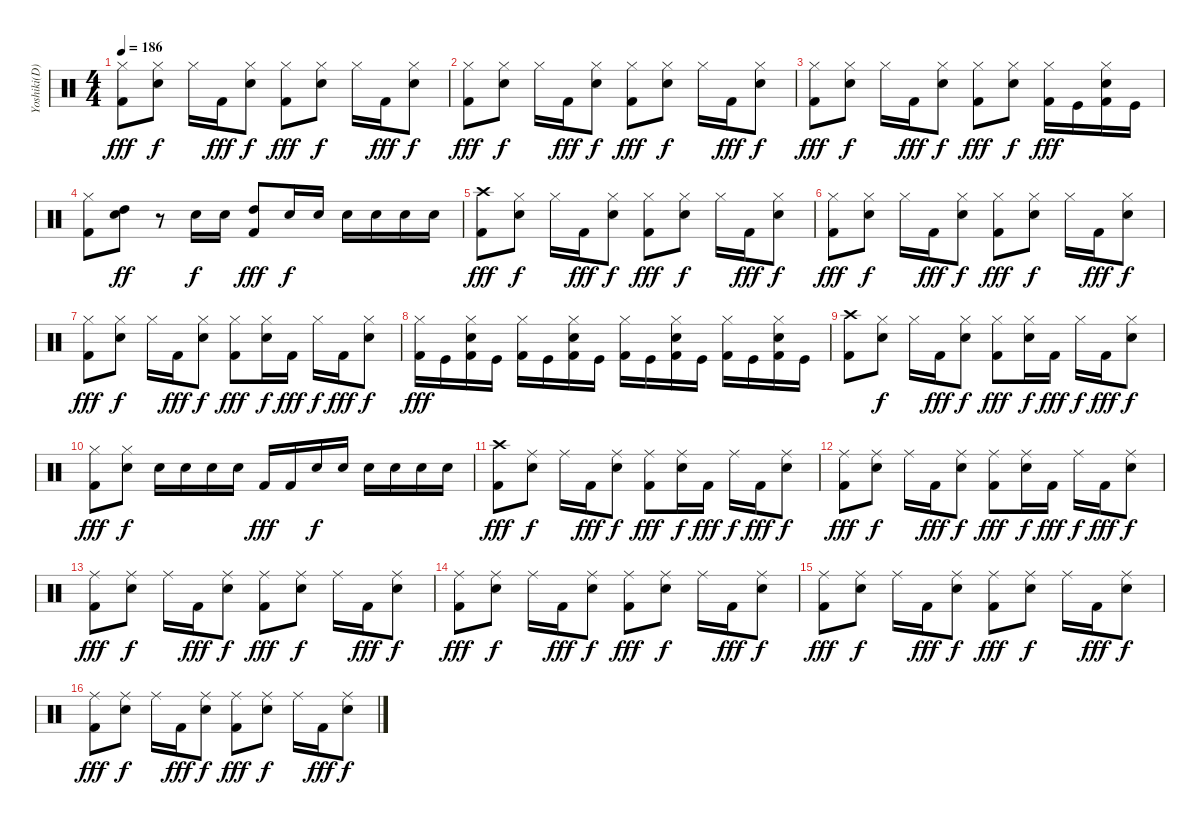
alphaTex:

\track ("Yoshiki(D)" "Yoshiki(D)") {instrument percussion}
\staff {score}
\articulation defaults
\ts (4 4)
\tempo 186
\clef neutral
\ks c
("Hi-Hat (closed)" "Kick (hit) 2").8{dy fff} ("Hi-Hat (closed)" "Electric Snare (hit)").8{dy f} "Hi-Hat (closed)".16 "Kick (hit) 2".16{dy fff} ("Hi-Hat (closed)" "Electric Snare (hit)").8{dy f} ("Hi-Hat (closed)" "Kick (hit) 2").8{dy fff} ("Hi-Hat (closed)" "Electric Snare (hit)").8{dy f} "Hi-Hat (closed)".16 "Kick (hit) 2".16{dy fff} ("Hi-Hat (closed)" "Electric Snare (hit)").8{dy f} |
("Hi-Hat (closed)" "Kick (hit) 2").8{dy fff} ("Hi-Hat (closed)" "Electric Snare (hit)").8{dy f} "Hi-Hat (closed)".16 "Kick (hit) 2".16{dy fff} ("Hi-Hat (closed)" "Electric Snare (hit)").8{dy f} ("Hi-Hat (closed)" "Kick (hit) 2").8{dy fff} ("Hi-Hat (closed)" "Electric Snare (hit)").8{dy f} "Hi-Hat (closed)".16 "Kick (hit) 2".16{dy fff} ("Hi-Hat (closed)" "Electric Snare (hit)").8{dy f} |
("Hi-Hat (closed)" "Kick (hit) 2").8{dy fff} ("Hi-Hat (closed)" "Electric Snare (hit)").8{dy f} "Hi-Hat (closed)".16 "Kick (hit) 2".16{dy fff} ("Hi-Hat (closed)" "Electric Snare (hit)").8{dy f} ("Hi-Hat (closed)" "Kick (hit) 2").8{dy fff} ("Hi-Hat (closed)" "Electric Snare (hit)").8{dy f} ("Hi-Hat (closed)" "Kick (hit) 2").16{dy fff} "Kick (hit)".16 ("Hi-Hat (closed)" "Electric Snare (hit)" "Kick (hit) 2").16 "Kick (hit)".16 |
("Hi-Hat (closed)" "Kick (hit) 2").8 ("High Tom (hit)" "Electric Snare (hit)").8{dy ff} r.8 "Electric Snare (hit)".16{dy f} "Electric Snare (hit)".16 ("High Tom (hit)" "Kick (hit) 2").8{dy fff} "Electric Snare (hit)".16{dy f} "Electric Snare (hit)".16 "Electric Snare (hit)".16 "Electric Snare (hit)".16 "Electric Snare (hit)".16 "Electric Snare (hit)".16 |
("Crash high (hit)" "Kick (hit) 2").8{dy fff} ("Hi-Hat (closed)" "Electric Snare (hit)").8{dy f} "Hi-Hat (closed)".16 "Kick (hit) 2".16{dy fff} ("Hi-Hat (closed)" "Electric Snare (hit)").8{dy f} ("Hi-Hat (closed)" "Kick (hit) 2").8{dy fff} ("Hi-Hat (closed)" "Electric Snare (hit)").8{dy f} "Hi-Hat (closed)".16 "Kick (hit) 2".16{dy fff} ("Hi-Hat (closed)" "Electric Snare (hit)").8{dy f} |
("Hi-Hat (closed)" "Kick (hit) 2").8{dy fff} ("Hi-Hat (closed)" "Electric Snare (hit)").8{dy f} "Hi-Hat (closed)".16 "Kick (hit) 2".16{dy fff} ("Hi-Hat (closed)" "Electric Snare (hit)").8{dy f} ("Hi-Hat (closed)" "Kick (hit) 2").8{dy fff} ("Hi-Hat (closed)" "Electric Snare (hit)").8{dy f} "Hi-Hat (closed)".16 "Kick (hit) 2".16{dy fff} ("Hi-Hat (closed)" "Electric Snare (hit)").8{dy f} |
("Hi-Hat (closed)" "Kick (hit) 2").8{dy fff} ("Hi-Hat (closed)" "Electric Snare (hit)").8{dy f} "Hi-Hat (closed)".16 "Kick (hit) 2".16{dy fff} ("Hi-Hat (closed)" "Electric Snare (hit)").8{dy f} ("Hi-Hat (closed)" "Kick (hit) 2").8{dy fff} ("Hi-Hat (closed)" "Electric Snare (hit)").16{dy f} "Kick (hit) 2".16{dy fff} "Hi-Hat (closed)".16{dy f} "Kick (hit) 2".16{dy fff} ("Hi-Hat (closed)" "Electric Snare (hit)").8{dy f} |
("Hi-Hat (closed)" "Kick (hit) 2").16{dy fff} "Kick (hit)".16 ("Hi-Hat (closed)" "Electric Snare (hit)" "Kick (hit) 2").16 "Kick (hit)".16 ("Hi-Hat (closed)" "Kick (hit) 2").16 "Kick (hit)".16 ("Hi-Hat (closed)" "Electric Snare (hit)" "Kick (hit) 2").16 "Kick (hit)".16 ("Hi-Hat (closed)" "Kick (hit) 2").16 "Kick (hit)".16 ("Hi-Hat (closed)" "Electric Snare (hit)" "Kick (hit) 2").16 "Kick (hit)".16 ("Hi-Hat (closed)" "Kick (hit) 2").16 "Kick (hit)".16 ("Hi-Hat (closed)" "Electric Snare (hit)" "Kick (hit) 2").16 "Kick (hit)".16 |
("Crash high (hit)" "Kick (hit) 2").8 ("Hi-Hat (closed)" "Electric Snare (hit)").8{dy f} "Hi-Hat (closed)".16 "Kick (hit) 2".16{dy fff} ("Hi-Hat (closed)" "Electric Snare (hit)").8{dy f} ("Hi-Hat (closed)" "Kick (hit) 2").8{dy fff} ("Hi-Hat (closed)" "Electric Snare (hit)").16{dy f} "Kick (hit) 2".16{dy fff} "Hi-Hat (closed)".16{dy f} "Kick (hit) 2".16{dy fff} ("Hi-Hat (closed)" "Electric Snare (hit)").8{dy f} |
("Hi-Hat (closed)" "Kick (hit) 2").8{dy fff} ("Hi-Hat (closed)" "Electric Snare (hit)").8{dy f} "Electric Snare (hit)".16 "Electric Snare (hit)".16 "Electric Snare (hit)".16 "Electric Snare (hit)".16 "Kick (hit) 2".16{dy fff} "Kick (hit) 2".16 "Electric Snare (hit)".16{dy f} "Electric Snare (hit)".16 "Electric Snare (hit)".16 "Electric Snare (hit)".16 "Electric Snare (hit)".16 "Electric Snare (hit)".16 |
("Crash high (hit)" "Kick (hit) 2").8{dy fff} ("Ride (middle)" "Electric Snare (hit)").8{dy f} "Ride (middle)".16 "Kick (hit) 2".16{dy fff} ("Ride (middle)" "Electric Snare (hit)").8{dy f} ("Ride (middle)" "Kick (hit) 2").8{dy fff} ("Ride (middle)" "Electric Snare (hit)").16{dy f} "Kick (hit) 2".16{dy fff} "Ride (middle)".16{dy f} "Kick (hit) 2".16{dy fff} ("Ride (middle)" "Electric Snare (hit)").8{dy f} |
("Ride (middle)" "Kick (hit) 2").8{dy fff} ("Ride (middle)" "Electric Snare (hit)").8{dy f} "Ride (middle)".16 "Kick (hit) 2".16{dy fff} ("Ride (middle)" "Electric Snare (hit)").8{dy f} ("Ride (middle)" "Kick (hit) 2").8{dy fff} ("Ride (middle)" "Electric Snare (hit)").16{dy f} "Kick (hit) 2".16{dy fff} "Ride (middle)".16{dy f} "Kick (hit) 2".16{dy fff} ("Ride (middle)" "Electric Snare (hit)").8{dy f} |
("Ride (middle)" "Kick (hit) 2").8{dy fff} ("Ride (middle)" "Electric Snare (hit)").8{dy f} "Ride (middle)".16 "Kick (hit) 2".16{dy fff} ("Ride (middle)" "Electric Snare (hit)").8{dy f} ("Ride (middle)" "Kick (hit) 2").8{dy fff} ("Ride (middle)" "Electric Snare (hit)").8{dy f} "Ride (middle)".16 "Kick (hit) 2".16{dy fff} ("Ride (middle)" "Electric Snare (hit)").8{dy f} |
("Ride (middle)" "Kick (hit) 2").8{dy fff} ("Ride (middle)" "Electric Snare (hit)").8{dy f} "Ride (middle)".16 "Kick (hit) 2".16{dy fff} ("Ride (middle)" "Electric Snare (hit)").8{dy f} ("Ride (middle)" "Kick (hit) 2").8{dy fff} ("Ride (middle)" "Electric Snare (hit)").8{dy f} "Ride (middle)".16 "Kick (hit) 2".16{dy fff} ("Ride (middle)" "Electric Snare (hit)").8{dy f} |
("Ride (middle)" "Kick (hit) 2").8{dy fff} ("Ride (middle)" "Electric Snare (hit)").8{dy f} "Ride (middle)".16 "Kick (hit) 2".16{dy fff} ("Ride (middle)" "Electric Snare (hit)").8{dy f} ("Ride (middle)" "Kick (hit) 2").8{dy fff} ("Ride (middle)" "Electric Snare (hit)").8{dy f} "Ride (middle)".16 "Kick (hit) 2".16{dy fff} ("Ride (middle)" "Electric Snare (hit)").8{dy f} |
("Ride (middle)" "Kick (hit) 2").8{dy fff} ("Ride (middle)" "Electric Snare (hit)").8{dy f} "Ride (middle)".16 "Kick (hit) 2".16{dy fff} ("Ride (middle)" "Electric Snare (hit)").8{dy f} ("Ride (middle)" "Kick (hit) 2").8{dy fff} ("Ride (middle)" "Electric Snare (hit)").8{dy f} "Ride (middle)".16 "Kick (hit) 2".16{dy fff} ("Ride (middle)" "Electric Snare (hit)").8{dy f}
